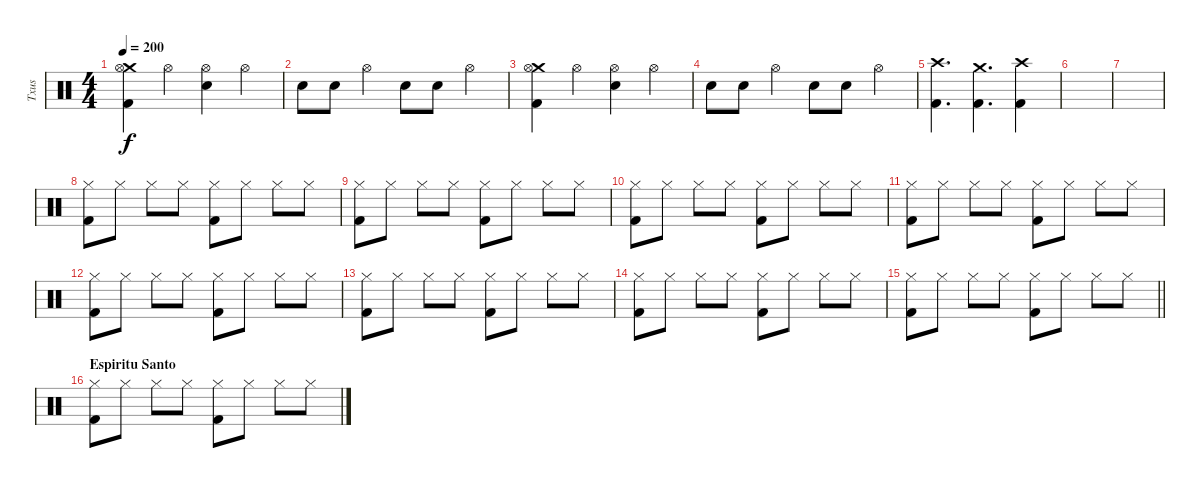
\track ("Txus" "Txus") {instrument percussion}
\staff
\articulation defaults
\ts (4 4)
\tempo 200
\clef neutral
\ks c
("Kick (hit) 2" "Crash medium (hit)" "Hi-Hat (open)").4{dy f} "Hi-Hat (open)".4 ("Electric Snare (hit)" "Hi-Hat (open)").4 "Hi-Hat (open)".4 |
"Electric Snare (hit)".8 "Electric Snare (hit)".8 "Hi-Hat (open)".4 "Electric Snare (hit)".8 "Electric Snare (hit)".8 "Hi-Hat (open)".4 |
("Kick (hit) 2" "Crash medium (hit)" "Hi-Hat (open)").4 "Hi-Hat (open)".4 ("Electric Snare (hit)" "Hi-Hat (open)").4 "Hi-Hat (open)".4 |
"Electric Snare (hit)".8 "Electric Snare (hit)".8 "Hi-Hat (open)".4 "Electric Snare (hit)".8 "Electric Snare (hit)".8 "Hi-Hat (open)".4 |
("Kick (hit) 2" "Crash high (hit)").4{d} ("Kick (hit) 2" "Crash medium (hit)").4{d} ("Kick (hit) 2" "Crash high (hit)").4 |
|
|
("Kick (hit) 2" "Hi-Hat (closed)").8 "Hi-Hat (closed)".8 "Hi-Hat (closed)".8 "Hi-Hat (closed)".8 ("Kick (hit) 2" "Hi-Hat (closed)").8 "Hi-Hat (closed)".8 "Hi-Hat (closed)".8 "Hi-Hat (closed)".8 |
("Kick (hit) 2" "Hi-Hat (closed)").8 "Hi-Hat (closed)".8 "Hi-Hat (closed)".8 "Hi-Hat (closed)".8 ("Kick (hit) 2" "Hi-Hat (closed)").8 "Hi-Hat (closed)".8 "Hi-Hat (closed)".8 "Hi-Hat (closed)".8 |
("Kick (hit) 2" "Hi-Hat (closed)").8 "Hi-Hat (closed)".8 "Hi-Hat (closed)".8 "Hi-Hat (closed)".8 ("Kick (hit) 2" "Hi-Hat (closed)").8 "Hi-Hat (closed)".8 "Hi-Hat (closed)".8 "Hi-Hat (closed)".8 |
("Kick (hit) 2" "Hi-Hat (closed)").8 "Hi-Hat (closed)".8 "Hi-Hat (closed)".8 "Hi-Hat (closed)".8 ("Kick (hit) 2" "Hi-Hat (closed)").8 "Hi-Hat (closed)".8 "Hi-Hat (closed)".8 "Hi-Hat (closed)".8 |
("Kick (hit) 2" "Hi-Hat (closed)").8 "Hi-Hat (closed)".8 "Hi-Hat (closed)".8 "Hi-Hat (closed)".8 ("Kick (hit) 2" "Hi-Hat (closed)").8 "Hi-Hat (closed)".8 "Hi-Hat (closed)".8 "Hi-Hat (closed)".8 |
("Kick (hit) 2" "Hi-Hat (closed)").8 "Hi-Hat (closed)".8 "Hi-Hat (closed)".8 "Hi-Hat (closed)".8 ("Kick (hit) 2" "Hi-Hat (closed)").8 "Hi-Hat (closed)".8 "Hi-Hat (closed)".8 "Hi-Hat (closed)".8 |
("Kick (hit) 2" "Hi-Hat (closed)").8 "Hi-Hat (closed)".8 "Hi-Hat (closed)".8 "Hi-Hat (closed)".8 ("Kick (hit) 2" "Hi-Hat (closed)").8 "Hi-Hat (closed)".8 "Hi-Hat (closed)".8 "Hi-Hat (closed)".8 |
\barLineRight lightlight
("Kick (hit) 2" "Hi-Hat (closed)").8 "Hi-Hat (closed)".8 "Hi-Hat (closed)".8 "Hi-Hat (closed)".8 ("Kick (hit) 2" "Hi-Hat (closed)").8 "Hi-Hat (closed)".8 "Hi-Hat (closed)".8 "Hi-Hat (closed)".8 |
\section ("" "Espiritu Santo")
("Kick (hit) 2" "Hi-Hat (closed)").8 "Hi-Hat (closed)".8 "Hi-Hat (closed)".8 "Hi-Hat (closed)".8 ("Kick (hit) 2" "Hi-Hat (closed)").8 "Hi-Hat (closed)".8 "Hi-Hat (closed)".8 "Hi-Hat (closed)".8
